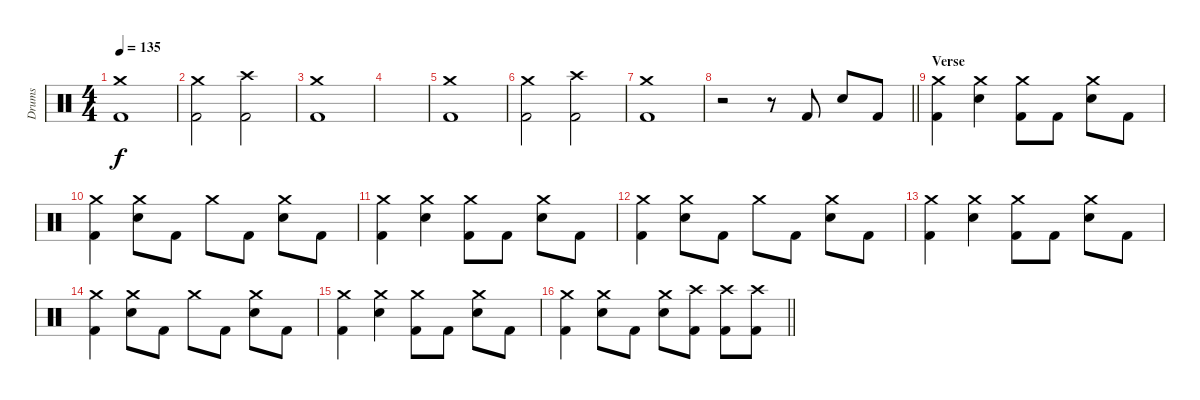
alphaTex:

\track ("Drums" "Drums") {instrument percussion}
\staff {score}
\articulation defaults
\ts (4 4)
\section ("" "")
\tempo 135
\clef neutral
\ks c
("Kick (hit) 2" "Crash medium (hit)").1{dy f} |
("Kick (hit) 2" "Crash medium (hit)").2 ("Kick (hit) 2" "Crash high (hit)").2 |
("Kick (hit) 2" "Crash medium (hit)").1 |
|
("Kick (hit) 2" "Crash medium (hit)").1 |
("Kick (hit) 2" "Crash medium (hit)").2 ("Kick (hit) 2" "Crash high (hit)").2 |
("Kick (hit) 2" "Crash medium (hit)").1 |
\barLineRight lightlight
r.2 r.8 "Kick (hit) 2".8 "Snare (hit) 2".8 "Kick (hit) 2".8 |
\section ("" "Verse")
("Kick (hit) 2" "Crash medium (hit)").4 ("Snare (hit) 2" "Crash medium (hit)").4 ("Kick (hit) 2" "Crash medium (hit)").8 "Kick (hit) 2".8 ("Snare (hit) 2" "Crash medium (hit)").8 "Kick (hit) 2".8 |
("Kick (hit) 2" "Crash medium (hit)").4 ("Snare (hit) 2" "Crash medium (hit)").8 "Kick (hit) 2".8 "Crash medium (hit)".8 "Kick (hit) 2".8 ("Snare (hit) 2" "Crash medium (hit)").8 "Kick (hit) 2".8 |
("Kick (hit) 2" "Crash medium (hit)").4 ("Snare (hit) 2" "Crash medium (hit)").4 ("Kick (hit) 2" "Crash medium (hit)").8 "Kick (hit) 2".8 ("Snare (hit) 2" "Crash medium (hit)").8 "Kick (hit) 2".8 |
("Kick (hit) 2" "Crash medium (hit)").4 ("Snare (hit) 2" "Crash medium (hit)").8 "Kick (hit) 2".8 "Crash medium (hit)".8 "Kick (hit) 2".8 ("Snare (hit) 2" "Crash medium (hit)").8 "Kick (hit) 2".8 |
("Kick (hit) 2" "Crash medium (hit)").4 ("Snare (hit) 2" "Crash medium (hit)").4 ("Kick (hit) 2" "Crash medium (hit)").8 "Kick (hit) 2".8 ("Snare (hit) 2" "Crash medium (hit)").8 "Kick (hit) 2".8 |
("Kick (hit) 2" "Crash medium (hit)").4 ("Snare (hit) 2" "Crash medium (hit)").8 "Kick (hit) 2".8 "Crash medium (hit)".8 "Kick (hit) 2".8 ("Snare (hit) 2" "Crash medium (hit)").8 "Kick (hit) 2".8 |
("Kick (hit) 2" "Crash medium (hit)").4 ("Snare (hit) 2" "Crash medium (hit)").4 ("Kick (hit) 2" "Crash medium (hit)").8 "Kick (hit) 2".8 ("Snare (hit) 2" "Crash medium (hit)").8 "Kick (hit) 2".8 |
\barLineRight lightlight
("Kick (hit) 2" "Crash medium (hit)").4 ("Snare (hit) 2" "Crash medium (hit)").8 "Kick (hit) 2".8 ("Snare (hit) 2" "Crash medium (hit)").8 ("Kick (hit) 2" "Crash high (hit)").8 ("Kick (hit) 2" "Crash high (hit)").8 ("Kick (hit) 2" "Crash high (hit)").8
